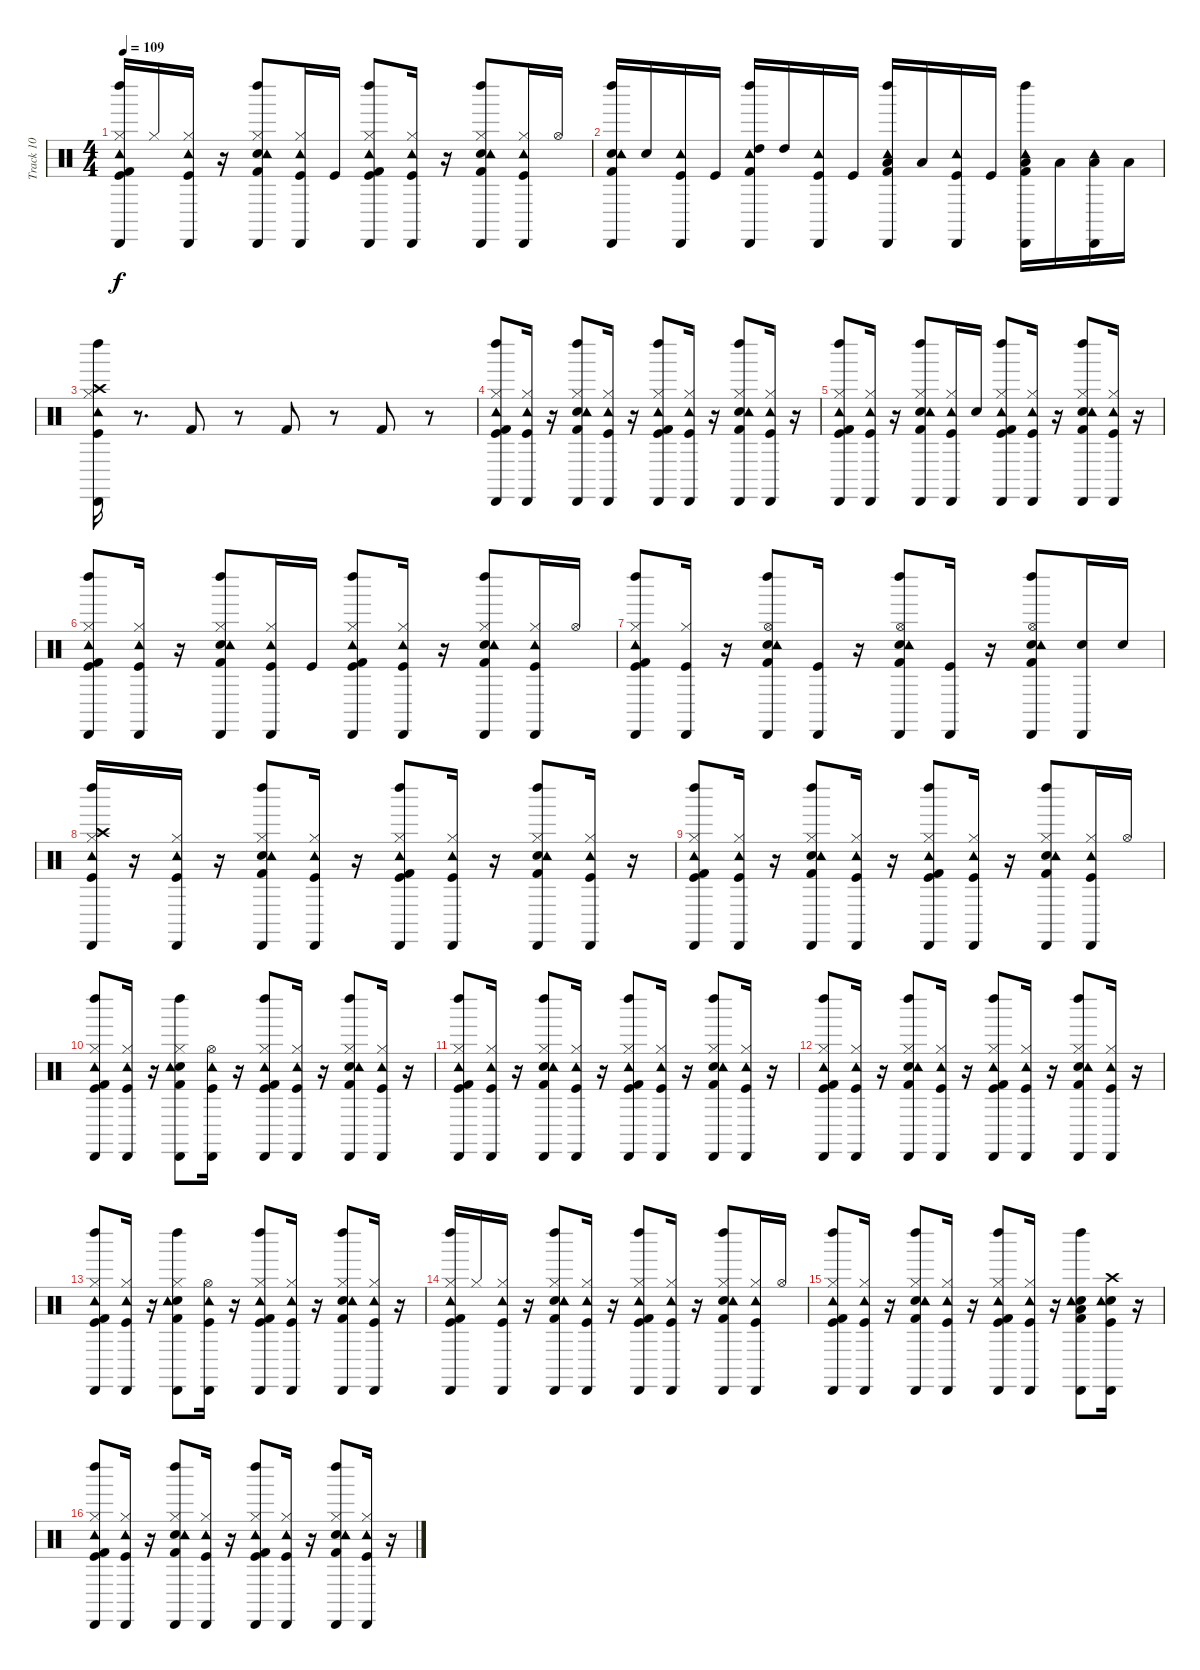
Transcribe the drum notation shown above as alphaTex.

\track ("Track 10" "Track 10") {instrument percussion}
\staff {score}
\articulation defaults
\ts (4 4)
\tempo 109
\clef neutral
\ks c
("Kick (hit)" "Hi-Hat (closed)" "Tambourine (hit)" "Left Maraca (hit)" "Cabasa (hit)" "Kick (hit) 2").16{dy f} "Hi-Hat (closed)".16 ("Kick (hit)" "Hi-Hat (closed)" "Tambourine (hit)" "Cabasa (hit)").16 r.16 ("Snare (hit) 2" "Hi-Hat (closed)" "Tambourine (hit)" "Left Maraca (hit)" "Cabasa (hit)" "Kick (hit) 2").8 ("Kick (hit)" "Hi-Hat (closed)" "Tambourine (hit)" "Cabasa (hit)").16 "Kick (hit)".16 ("Kick (hit)" "Hi-Hat (closed)" "Tambourine (hit)" "Left Maraca (hit)" "Cabasa (hit)" "Kick (hit) 2").8 ("Kick (hit)" "Hi-Hat (closed)" "Tambourine (hit)" "Cabasa (hit)").16 r.16 ("Snare (hit) 2" "Hi-Hat (closed)" "Tambourine (hit)" "Left Maraca (hit)" "Cabasa (hit)" "Kick (hit) 2").8 ("Kick (hit)" "Hi-Hat (closed)" "Tambourine (hit)" "Cabasa (hit)").16 "Hi-Hat (open)".16 |
("Snare (hit) 2" "Tambourine (hit)" "Left Maraca (hit)" "Cabasa (hit)" "Kick (hit) 2").16 "Snare (hit) 2".16 ("Kick (hit)" "Tambourine (hit)" "Cabasa (hit)").16 "Kick (hit)".16 ("High Tom (hit)" "Tambourine (hit)" "Left Maraca (hit)" "Cabasa (hit)" "Kick (hit) 2").16 "High Tom (hit)".16 ("Kick (hit)" "Tambourine (hit)" "Cabasa (hit)").16 "Kick (hit)".16 ("Low Tom (hit)" "Tambourine (hit)" "Left Maraca (hit)" "Cabasa (hit)" "Kick (hit) 2").16 "Low Tom (hit)".16 ("Kick (hit)" "Tambourine (hit)" "Cabasa (hit)").16 "Kick (hit)".16 ("Low Floor Tom (hit)" "Tambourine (hit)" "Left Maraca (hit)" "Cabasa (hit)" "Kick (hit) 2").16 "Low Floor Tom (hit)".16 ("Low Floor Tom (hit)" "Tambourine (hit)" "Cabasa (hit)").16 "Low Floor Tom (hit)".16 |
("Kick (hit)" "Hi-Hat (closed)" "Crash high (hit)" "Tambourine (hit)" "Left Maraca (hit)" "Cabasa (hit)").16 r.8{d} "Kick (hit) 2".8 r.8 "Kick (hit) 2".8 r.8 "Kick (hit) 2".8 r.8 |
("Kick (hit)" "Hi-Hat (closed)" "Tambourine (hit)" "Left Maraca (hit)" "Cabasa (hit)" "Kick (hit) 2").8 ("Kick (hit)" "Hi-Hat (closed)" "Tambourine (hit)" "Cabasa (hit)").16 r.16 ("Snare (hit) 2" "Hi-Hat (closed)" "Tambourine (hit)" "Left Maraca (hit)" "Cabasa (hit)" "Kick (hit) 2").8 ("Kick (hit)" "Hi-Hat (closed)" "Tambourine (hit)" "Cabasa (hit)").16 r.16 ("Kick (hit)" "Hi-Hat (closed)" "Tambourine (hit)" "Left Maraca (hit)" "Cabasa (hit)" "Kick (hit) 2").8 ("Kick (hit)" "Hi-Hat (closed)" "Tambourine (hit)" "Cabasa (hit)").16 r.16 ("Snare (hit) 2" "Hi-Hat (closed)" "Tambourine (hit)" "Left Maraca (hit)" "Cabasa (hit)" "Kick (hit) 2").8 ("Kick (hit)" "Hi-Hat (closed)" "Tambourine (hit)" "Cabasa (hit)").16 r.16 |
("Kick (hit)" "Hi-Hat (closed)" "Tambourine (hit)" "Left Maraca (hit)" "Cabasa (hit)" "Kick (hit) 2").8 ("Kick (hit)" "Hi-Hat (closed)" "Tambourine (hit)" "Cabasa (hit)").16 r.16 ("Snare (hit) 2" "Hi-Hat (closed)" "Tambourine (hit)" "Left Maraca (hit)" "Cabasa (hit)" "Kick (hit) 2").8 ("Kick (hit)" "Hi-Hat (closed)" "Tambourine (hit)" "Cabasa (hit)").16 "Snare (hit) 2".16 ("Kick (hit)" "Hi-Hat (closed)" "Tambourine (hit)" "Left Maraca (hit)" "Cabasa (hit)" "Kick (hit) 2").8 ("Kick (hit)" "Hi-Hat (closed)" "Tambourine (hit)" "Cabasa (hit)").16 r.16 ("Snare (hit) 2" "Hi-Hat (closed)" "Tambourine (hit)" "Left Maraca (hit)" "Cabasa (hit)" "Kick (hit) 2").8 ("Kick (hit)" "Hi-Hat (closed)" "Tambourine (hit)" "Cabasa (hit)").16 r.16 |
("Kick (hit)" "Hi-Hat (closed)" "Tambourine (hit)" "Left Maraca (hit)" "Cabasa (hit)" "Kick (hit) 2").8 ("Kick (hit)" "Hi-Hat (closed)" "Tambourine (hit)" "Cabasa (hit)").16 r.16 ("Snare (hit) 2" "Hi-Hat (closed)" "Tambourine (hit)" "Left Maraca (hit)" "Cabasa (hit)" "Kick (hit) 2").8 ("Kick (hit)" "Hi-Hat (closed)" "Tambourine (hit)" "Cabasa (hit)").16 "Kick (hit)".16 ("Kick (hit)" "Hi-Hat (closed)" "Tambourine (hit)" "Left Maraca (hit)" "Cabasa (hit)" "Kick (hit) 2").8 ("Kick (hit)" "Hi-Hat (closed)" "Tambourine (hit)" "Cabasa (hit)").16 r.16 ("Snare (hit) 2" "Hi-Hat (closed)" "Tambourine (hit)" "Left Maraca (hit)" "Cabasa (hit)" "Kick (hit) 2").8 ("Kick (hit)" "Hi-Hat (closed)" "Tambourine (hit)" "Cabasa (hit)").16 "Hi-Hat (open)".16 |
("Kick (hit)" "Hi-Hat (closed)" "Tambourine (hit)" "Left Maraca (hit)" "Cabasa (hit)" "Kick (hit) 2").8 ("Kick (hit)" "Hi-Hat (closed)" "Cabasa (hit)").16 r.16 ("Snare (hit) 2" "Hi-Hat (open)" "Tambourine (hit)" "Left Maraca (hit)" "Cabasa (hit)" "Kick (hit) 2").8 ("Kick (hit)" "Cabasa (hit)").16 r.16 ("Snare (hit) 2" "Hi-Hat (open)" "Tambourine (hit)" "Left Maraca (hit)" "Cabasa (hit)" "Kick (hit) 2").8 ("Kick (hit)" "Cabasa (hit)").16 r.16 ("Snare (hit) 2" "Hi-Hat (open)" "Tambourine (hit)" "Left Maraca (hit)" "Cabasa (hit)" "Kick (hit) 2").8 ("Snare (hit) 2" "Cabasa (hit)").16 "Snare (hit) 2".16 |
("Kick (hit)" "Hi-Hat (closed)" "Crash high (hit)" "Tambourine (hit)" "Left Maraca (hit)" "Cabasa (hit)").16 r.16 ("Kick (hit)" "Hi-Hat (closed)" "Tambourine (hit)" "Cabasa (hit)").16 r.16 ("Snare (hit) 2" "Hi-Hat (closed)" "Tambourine (hit)" "Left Maraca (hit)" "Cabasa (hit)" "Kick (hit) 2").8 ("Kick (hit)" "Hi-Hat (closed)" "Tambourine (hit)" "Cabasa (hit)").16 r.16 ("Kick (hit)" "Hi-Hat (closed)" "Tambourine (hit)" "Left Maraca (hit)" "Cabasa (hit)" "Kick (hit) 2").8 ("Kick (hit)" "Hi-Hat (closed)" "Tambourine (hit)" "Cabasa (hit)").16 r.16 ("Snare (hit) 2" "Hi-Hat (closed)" "Tambourine (hit)" "Left Maraca (hit)" "Cabasa (hit)" "Kick (hit) 2").8 ("Kick (hit)" "Hi-Hat (closed)" "Tambourine (hit)" "Cabasa (hit)").16 r.16 |
("Kick (hit)" "Hi-Hat (closed)" "Tambourine (hit)" "Left Maraca (hit)" "Cabasa (hit)" "Kick (hit) 2").8 ("Kick (hit)" "Hi-Hat (closed)" "Tambourine (hit)" "Cabasa (hit)").16 r.16 ("Snare (hit) 2" "Hi-Hat (closed)" "Tambourine (hit)" "Left Maraca (hit)" "Cabasa (hit)" "Kick (hit) 2").8 ("Kick (hit)" "Hi-Hat (closed)" "Tambourine (hit)" "Cabasa (hit)").16 r.16 ("Kick (hit)" "Hi-Hat (closed)" "Tambourine (hit)" "Left Maraca (hit)" "Cabasa (hit)" "Kick (hit) 2").8 ("Kick (hit)" "Hi-Hat (closed)" "Tambourine (hit)" "Cabasa (hit)").16 r.16 ("Snare (hit) 2" "Hi-Hat (closed)" "Tambourine (hit)" "Left Maraca (hit)" "Cabasa (hit)" "Kick (hit) 2").8 ("Kick (hit)" "Hi-Hat (closed)" "Tambourine (hit)" "Cabasa (hit)").16 "Hi-Hat (open)".16 |
("Kick (hit)" "Hi-Hat (closed)" "Tambourine (hit)" "Left Maraca (hit)" "Cabasa (hit)" "Kick (hit) 2").8 ("Kick (hit)" "Hi-Hat (closed)" "Tambourine (hit)" "Cabasa (hit)").16 r.16 ("Snare (hit) 2" "Hi-Hat (closed)" "Tambourine (hit)" "Left Maraca (hit)" "Cabasa (hit)" "Kick (hit) 2").8 ("Kick (hit)" "Hi-Hat (open)" "Tambourine (hit)" "Cabasa (hit)").16 r.16 ("Kick (hit)" "Hi-Hat (closed)" "Tambourine (hit)" "Left Maraca (hit)" "Cabasa (hit)" "Kick (hit) 2").8 ("Kick (hit)" "Hi-Hat (closed)" "Tambourine (hit)" "Cabasa (hit)").16 r.16 ("Snare (hit) 2" "Hi-Hat (closed)" "Tambourine (hit)" "Left Maraca (hit)" "Cabasa (hit)" "Kick (hit) 2").8 ("Kick (hit)" "Hi-Hat (closed)" "Tambourine (hit)" "Cabasa (hit)").16 r.16 |
("Kick (hit)" "Hi-Hat (closed)" "Tambourine (hit)" "Left Maraca (hit)" "Cabasa (hit)" "Kick (hit) 2").8 ("Kick (hit)" "Hi-Hat (closed)" "Tambourine (hit)" "Cabasa (hit)").16 r.16 ("Snare (hit) 2" "Hi-Hat (closed)" "Tambourine (hit)" "Left Maraca (hit)" "Cabasa (hit)" "Kick (hit) 2").8 ("Kick (hit)" "Hi-Hat (closed)" "Tambourine (hit)" "Cabasa (hit)").16 r.16 ("Kick (hit)" "Hi-Hat (closed)" "Tambourine (hit)" "Left Maraca (hit)" "Cabasa (hit)" "Kick (hit) 2").8 ("Kick (hit)" "Hi-Hat (closed)" "Tambourine (hit)" "Cabasa (hit)").16 r.16 ("Snare (hit) 2" "Hi-Hat (closed)" "Tambourine (hit)" "Left Maraca (hit)" "Cabasa (hit)" "Kick (hit) 2").8 ("Kick (hit)" "Hi-Hat (closed)" "Tambourine (hit)" "Cabasa (hit)").16 r.16 |
("Kick (hit)" "Hi-Hat (closed)" "Tambourine (hit)" "Left Maraca (hit)" "Cabasa (hit)" "Kick (hit) 2").8 ("Kick (hit)" "Hi-Hat (closed)" "Tambourine (hit)" "Cabasa (hit)").16 r.16 ("Snare (hit) 2" "Hi-Hat (closed)" "Tambourine (hit)" "Left Maraca (hit)" "Cabasa (hit)" "Kick (hit) 2").8 ("Kick (hit)" "Hi-Hat (closed)" "Tambourine (hit)" "Cabasa (hit)").16 r.16 ("Kick (hit)" "Hi-Hat (closed)" "Tambourine (hit)" "Left Maraca (hit)" "Cabasa (hit)" "Kick (hit) 2").8 ("Kick (hit)" "Hi-Hat (closed)" "Tambourine (hit)" "Cabasa (hit)").16 r.16 ("Snare (hit) 2" "Hi-Hat (closed)" "Tambourine (hit)" "Left Maraca (hit)" "Cabasa (hit)" "Kick (hit) 2").8 ("Kick (hit)" "Hi-Hat (closed)" "Tambourine (hit)" "Cabasa (hit)").16 r.16 |
("Kick (hit)" "Hi-Hat (closed)" "Tambourine (hit)" "Left Maraca (hit)" "Cabasa (hit)" "Kick (hit) 2").8 ("Kick (hit)" "Hi-Hat (closed)" "Tambourine (hit)" "Cabasa (hit)").16 r.16 ("Snare (hit) 2" "Hi-Hat (closed)" "Tambourine (hit)" "Left Maraca (hit)" "Cabasa (hit)" "Kick (hit) 2").8 ("Kick (hit)" "Hi-Hat (open)" "Tambourine (hit)" "Cabasa (hit)").16 r.16 ("Kick (hit)" "Hi-Hat (closed)" "Tambourine (hit)" "Left Maraca (hit)" "Cabasa (hit)" "Kick (hit) 2").8 ("Kick (hit)" "Hi-Hat (closed)" "Tambourine (hit)" "Cabasa (hit)").16 r.16 ("Snare (hit) 2" "Hi-Hat (closed)" "Tambourine (hit)" "Left Maraca (hit)" "Cabasa (hit)" "Kick (hit) 2").8 ("Kick (hit)" "Hi-Hat (closed)" "Tambourine (hit)" "Cabasa (hit)").16 r.16 |
("Kick (hit)" "Hi-Hat (closed)" "Tambourine (hit)" "Left Maraca (hit)" "Cabasa (hit)" "Kick (hit) 2").16 "Hi-Hat (closed)".16 ("Kick (hit)" "Hi-Hat (closed)" "Tambourine (hit)" "Cabasa (hit)").16 r.16 ("Snare (hit) 2" "Hi-Hat (closed)" "Tambourine (hit)" "Left Maraca (hit)" "Cabasa (hit)" "Kick (hit) 2").8 ("Kick (hit)" "Hi-Hat (closed)" "Tambourine (hit)" "Cabasa (hit)").16 r.16 ("Kick (hit)" "Hi-Hat (closed)" "Tambourine (hit)" "Left Maraca (hit)" "Cabasa (hit)" "Kick (hit) 2").8 ("Kick (hit)" "Hi-Hat (closed)" "Tambourine (hit)" "Cabasa (hit)").16 r.16 ("Snare (hit) 2" "Hi-Hat (closed)" "Tambourine (hit)" "Left Maraca (hit)" "Cabasa (hit)" "Kick (hit) 2").8 ("Kick (hit)" "Hi-Hat (closed)" "Tambourine (hit)" "Cabasa (hit)").16 "Hi-Hat (open)".16 |
("Kick (hit)" "Hi-Hat (closed)" "Tambourine (hit)" "Left Maraca (hit)" "Cabasa (hit)" "Kick (hit) 2").8 ("Kick (hit)" "Hi-Hat (closed)" "Tambourine (hit)" "Cabasa (hit)").16 r.16 ("Snare (hit) 2" "Hi-Hat (closed)" "Tambourine (hit)" "Left Maraca (hit)" "Cabasa (hit)" "Kick (hit) 2").8 ("Kick (hit)" "Hi-Hat (closed)" "Tambourine (hit)" "Cabasa (hit)").16 r.16 ("Kick (hit)" "Hi-Hat (closed)" "Tambourine (hit)" "Left Maraca (hit)" "Cabasa (hit)" "Kick (hit) 2").8 ("Kick (hit)" "Hi-Hat (closed)" "Tambourine (hit)" "Cabasa (hit)").16 r.16 ("Snare (hit) 2" "Low Floor Tom (hit)" "Tambourine (hit)" "Left Maraca (hit)" "Cabasa (hit)" "Kick (hit) 2").8 ("Kick (hit)" "Snare (hit) 2" "Crash high (hit)" "Tambourine (hit)" "Cabasa (hit)").16 r.16 |
("Kick (hit)" "Hi-Hat (closed)" "Tambourine (hit)" "Left Maraca (hit)" "Cabasa (hit)" "Kick (hit) 2").8 ("Kick (hit)" "Hi-Hat (closed)" "Tambourine (hit)" "Cabasa (hit)").16 r.16 ("Snare (hit) 2" "Hi-Hat (closed)" "Tambourine (hit)" "Left Maraca (hit)" "Cabasa (hit)" "Kick (hit) 2").8 ("Kick (hit)" "Hi-Hat (closed)" "Tambourine (hit)" "Cabasa (hit)").16 r.16 ("Kick (hit)" "Hi-Hat (closed)" "Tambourine (hit)" "Left Maraca (hit)" "Cabasa (hit)" "Kick (hit) 2").8 ("Kick (hit)" "Hi-Hat (closed)" "Tambourine (hit)" "Cabasa (hit)").16 r.16 ("Snare (hit) 2" "Hi-Hat (closed)" "Tambourine (hit)" "Left Maraca (hit)" "Cabasa (hit)" "Kick (hit) 2").8 ("Kick (hit)" "Hi-Hat (closed)" "Tambourine (hit)" "Cabasa (hit)").16 r.16
